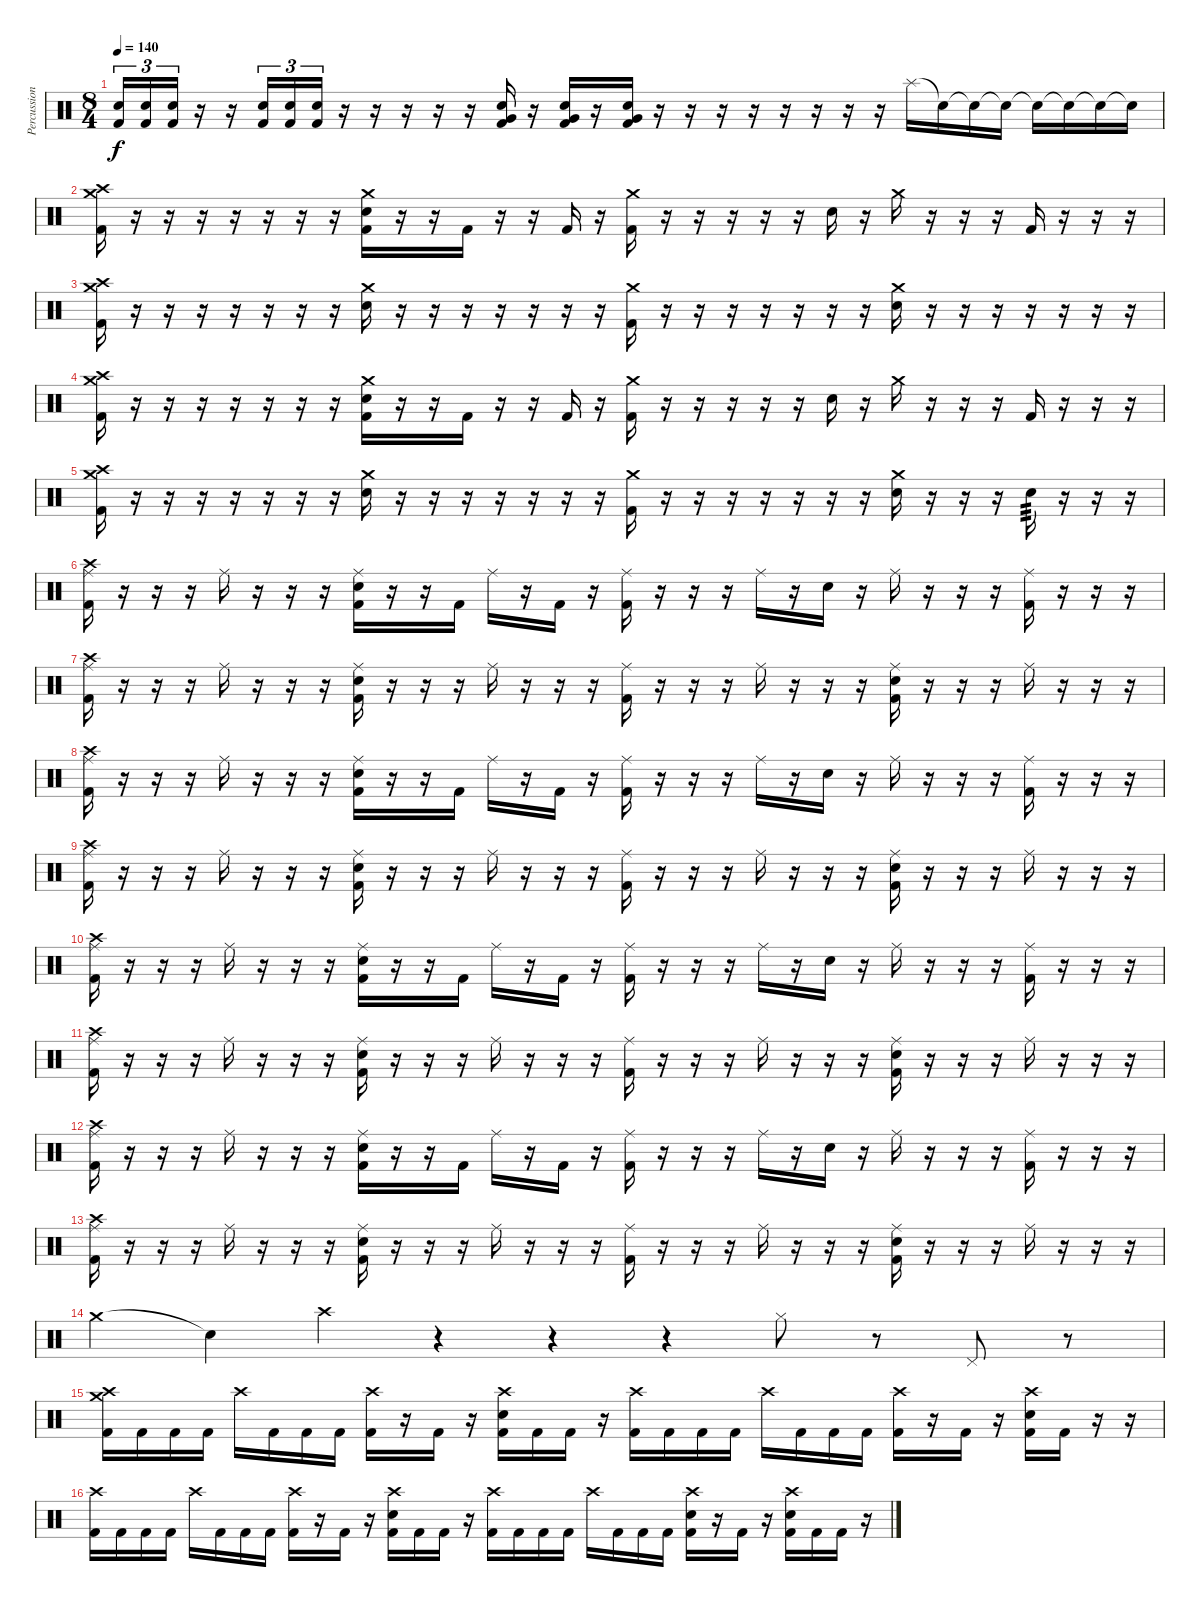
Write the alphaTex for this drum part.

\track ("Percussion" "Percussion") {solo instrument percussion}
\staff {score}
\articulation defaults
\ts (8 4)
\tempo 140
\clef neutral
\ks c
("Electric Snare (hit)" "Kick (hit) 2").16{tu (3 2) dy f} ("Electric Snare (hit)" "Kick (hit) 2").16{tu (3 2)} ("Electric Snare (hit)" "Kick (hit) 2").16{tu (3 2)} r.16 r.16 ("Electric Snare (hit)" "Kick (hit) 2").16{tu (3 2)} ("Electric Snare (hit)" "Kick (hit) 2").16{tu (3 2)} ("Electric Snare (hit)" "Kick (hit) 2").16{tu (3 2)} r.16 r.16 r.16 r.16 r.16 ("Very Low Tom (hit)" "Electric Snare (hit)" "Kick (hit) 2").16 r.16 ("Very Low Tom (hit)" "Electric Snare (hit)" "Kick (hit) 2").16 r.16 ("Very Low Tom (hit)" "Electric Snare (hit)" "Kick (hit) 2").16 r.16 r.16 r.16 r.16 r.16 r.16 r.16 r.16 "Splash (hit)".16 "Snare (hit)"{t}.16 "Snare (hit)"{t}.16 "Snare (hit)"{t}.16 "Snare (hit)"{t}.16 "Snare (hit)"{t}.16 "Snare (hit)"{t}.16 "Snare (hit)"{t}.16 |
("Crash medium (hit)" "Crash high (hit)" "Kick (hit) 2").16 r.16 r.16 r.16 r.16 r.16 r.16 r.16 ("Crash medium (hit)" "Electric Snare (hit)" "Kick (hit) 2").16 r.16 r.16 "Kick (hit) 2".16 r.16 r.16 "Kick (hit) 2".16 r.16 ("Crash medium (hit)" "Kick (hit) 2").16 r.16 r.16 r.16 r.16 r.16 "Electric Snare (hit)".16 r.16 "Crash medium (hit)".16 r.16 r.16 r.16 "Kick (hit) 2".16 r.16 r.16 r.16 |
("Crash medium (hit)" "Crash high (hit)" "Kick (hit) 2").16 r.16 r.16 r.16 r.16 r.16 r.16 r.16 ("Crash medium (hit)" "Electric Snare (hit)").16 r.16 r.16 r.16 r.16 r.16 r.16 r.16 ("Crash medium (hit)" "Kick (hit) 2").16 r.16 r.16 r.16 r.16 r.16 r.16 r.16 ("Crash medium (hit)" "Electric Snare (hit)").16 r.16 r.16 r.16 r.16 r.16 r.16 r.16 |
("Crash medium (hit)" "Crash high (hit)" "Kick (hit) 2").16 r.16 r.16 r.16 r.16 r.16 r.16 r.16 ("Crash medium (hit)" "Electric Snare (hit)" "Kick (hit) 2").16 r.16 r.16 "Kick (hit) 2".16 r.16 r.16 "Kick (hit) 2".16 r.16 ("Crash medium (hit)" "Kick (hit) 2").16 r.16 r.16 r.16 r.16 r.16 "Electric Snare (hit)".16 r.16 "Crash medium (hit)".16 r.16 r.16 r.16 "Kick (hit) 2".16 r.16 r.16 r.16 |
("Crash medium (hit)" "Crash high (hit)" "Kick (hit) 2").16 r.16 r.16 r.16 r.16 r.16 r.16 r.16 ("Crash medium (hit)" "Electric Snare (hit)").16 r.16 r.16 r.16 r.16 r.16 r.16 r.16 ("Crash medium (hit)" "Kick (hit) 2").16 r.16 r.16 r.16 r.16 r.16 r.16 r.16 ("Crash medium (hit)" "Electric Snare (hit)").16 r.16 r.16 r.16 "Electric Snare (hit)".16{tp 3} r.16 r.16 r.16 |
("Ride (middle)" "Crash high (hit)" "Kick (hit) 2").16 r.16 r.16 r.16 "Ride (middle)".16 r.16 r.16 r.16 ("Ride (middle)" "Electric Snare (hit)" "Kick (hit) 2").16 r.16 r.16 "Kick (hit) 2".16 "Ride (middle)".16 r.16 "Kick (hit) 2".16 r.16 ("Ride (middle)" "Kick (hit) 2").16 r.16 r.16 r.16 "Ride (middle)".16 r.16 "Electric Snare (hit)".16 r.16 "Ride (middle)".16 r.16 r.16 r.16 ("Ride (middle)" "Kick (hit) 2").16 r.16 r.16 r.16 |
("Ride (middle)" "Crash high (hit)" "Kick (hit) 2").16 r.16 r.16 r.16 "Ride (middle)".16 r.16 r.16 r.16 ("Ride (middle)" "Electric Snare (hit)" "Kick (hit) 2").16 r.16 r.16 r.16 "Ride (middle)".16 r.16 r.16 r.16 ("Ride (middle)" "Kick (hit) 2").16 r.16 r.16 r.16 "Ride (middle)".16 r.16 r.16 r.16 ("Ride (middle)" "Electric Snare (hit)" "Kick (hit) 2").16 r.16 r.16 r.16 "Ride (middle)".16 r.16 r.16 r.16 |
("Ride (middle)" "Crash high (hit)" "Kick (hit) 2").16 r.16 r.16 r.16 "Ride (middle)".16 r.16 r.16 r.16 ("Ride (middle)" "Electric Snare (hit)" "Kick (hit) 2").16 r.16 r.16 "Kick (hit) 2".16 "Ride (middle)".16 r.16 "Kick (hit) 2".16 r.16 ("Ride (middle)" "Kick (hit) 2").16 r.16 r.16 r.16 "Ride (middle)".16 r.16 "Electric Snare (hit)".16 r.16 "Ride (middle)".16 r.16 r.16 r.16 ("Ride (middle)" "Kick (hit) 2").16 r.16 r.16 r.16 |
("Ride (middle)" "Crash high (hit)" "Kick (hit) 2").16 r.16 r.16 r.16 "Ride (middle)".16 r.16 r.16 r.16 ("Ride (middle)" "Electric Snare (hit)" "Kick (hit) 2").16 r.16 r.16 r.16 "Ride (middle)".16 r.16 r.16 r.16 ("Ride (middle)" "Kick (hit) 2").16 r.16 r.16 r.16 "Ride (middle)".16 r.16 r.16 r.16 ("Ride (middle)" "Electric Snare (hit)" "Kick (hit) 2").16 r.16 r.16 r.16 "Ride (middle)".16 r.16 r.16 r.16 |
("Ride (middle)" "Crash high (hit)" "Kick (hit) 2").16 r.16 r.16 r.16 "Ride (middle)".16 r.16 r.16 r.16 ("Ride (middle)" "Electric Snare (hit)" "Kick (hit) 2").16 r.16 r.16 "Kick (hit) 2".16 "Ride (middle)".16 r.16 "Kick (hit) 2".16 r.16 ("Ride (middle)" "Kick (hit) 2").16 r.16 r.16 r.16 "Ride (middle)".16 r.16 "Electric Snare (hit)".16 r.16 "Ride (middle)".16 r.16 r.16 r.16 ("Ride (middle)" "Kick (hit) 2").16 r.16 r.16 r.16 |
("Ride (middle)" "Crash high (hit)" "Kick (hit) 2").16 r.16 r.16 r.16 "Ride (middle)".16 r.16 r.16 r.16 ("Ride (middle)" "Electric Snare (hit)" "Kick (hit) 2").16 r.16 r.16 r.16 "Ride (middle)".16 r.16 r.16 r.16 ("Ride (middle)" "Kick (hit) 2").16 r.16 r.16 r.16 "Ride (middle)".16 r.16 r.16 r.16 ("Ride (middle)" "Electric Snare (hit)" "Kick (hit) 2").16 r.16 r.16 r.16 "Ride (middle)".16 r.16 r.16 r.16 |
("Ride (middle)" "Crash high (hit)" "Kick (hit) 2").16 r.16 r.16 r.16 "Ride (middle)".16 r.16 r.16 r.16 ("Ride (middle)" "Electric Snare (hit)" "Kick (hit) 2").16 r.16 r.16 "Kick (hit) 2".16 "Ride (middle)".16 r.16 "Kick (hit) 2".16 r.16 ("Ride (middle)" "Kick (hit) 2").16 r.16 r.16 r.16 "Ride (middle)".16 r.16 "Electric Snare (hit)".16 r.16 "Ride (middle)".16 r.16 r.16 r.16 ("Ride (middle)" "Kick (hit) 2").16 r.16 r.16 r.16 |
("Ride (middle)" "Crash high (hit)" "Kick (hit) 2").16 r.16 r.16 r.16 "Ride (middle)".16 r.16 r.16 r.16 ("Ride (middle)" "Electric Snare (hit)" "Kick (hit) 2").16 r.16 r.16 r.16 "Ride (middle)".16 r.16 r.16 r.16 ("Ride (middle)" "Kick (hit) 2").16 r.16 r.16 r.16 "Ride (middle)".16 r.16 r.16 r.16 ("Ride (middle)" "Electric Snare (hit)" "Kick (hit) 2").16 r.16 r.16 r.16 "Ride (middle)".16 r.16 r.16 r.16 |
"Crash medium (hit)".4 "Snare (hit)"{t}.4 "Crash high (hit)".4 r.4 r.4 r.4 "Hi-Hat (closed)".8 r.8 "Pedal Hi-Hat (hit)".8 r.8 |
("Crash high (hit)" "Crash medium (hit)" "Kick (hit) 2").16 "Kick (hit) 2".16 "Kick (hit) 2".16 "Kick (hit) 2".16 "Crash high (hit)".16 "Kick (hit) 2".16 "Kick (hit) 2".16 "Kick (hit) 2".16 ("Crash high (hit)" "Kick (hit) 2").16 r.16 "Kick (hit) 2".16 r.16 ("Crash high (hit)" "Electric Snare (hit)" "Kick (hit) 2").16 "Kick (hit) 2".16 "Kick (hit) 2".16 r.16 ("Crash high (hit)" "Kick (hit) 2").16 "Kick (hit) 2".16 "Kick (hit) 2".16 "Kick (hit) 2".16 "Crash high (hit)".16 "Kick (hit) 2".16 "Kick (hit) 2".16 "Kick (hit) 2".16 ("Crash high (hit)" "Kick (hit) 2").16 r.16 "Kick (hit) 2".16 r.16 ("Crash high (hit)" "Electric Snare (hit)" "Kick (hit) 2").16 "Kick (hit) 2".16 r.16 r.16 |
("Crash high (hit)" "Kick (hit) 2").16 "Kick (hit) 2".16 "Kick (hit) 2".16 "Kick (hit) 2".16 "Crash high (hit)".16 "Kick (hit) 2".16 "Kick (hit) 2".16 "Kick (hit) 2".16 ("Crash high (hit)" "Kick (hit) 2").16 r.16 "Kick (hit) 2".16 r.16 ("Crash high (hit)" "Electric Snare (hit)" "Kick (hit) 2").16 "Kick (hit) 2".16 "Kick (hit) 2".16 r.16 ("Crash high (hit)" "Kick (hit) 2").16 "Kick (hit) 2".16 "Kick (hit) 2".16 "Kick (hit) 2".16 "Crash high (hit)".16 "Kick (hit) 2".16 "Kick (hit) 2".16 "Kick (hit) 2".16 ("Crash high (hit)" "Electric Snare (hit)" "Kick (hit) 2").16 r.16 "Kick (hit) 2".16 r.16 ("Crash high (hit)" "Electric Snare (hit)" "Kick (hit) 2").16 "Kick (hit) 2".16 "Kick (hit) 2".16 r.16
